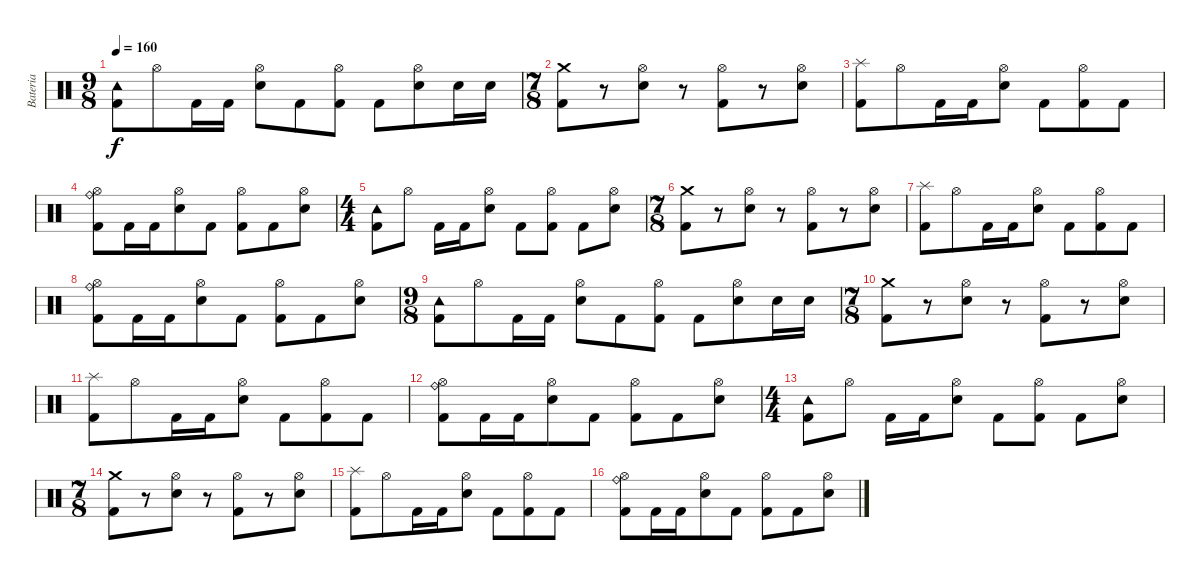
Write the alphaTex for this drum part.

\track ("Bateria" "Bateria") {instrument percussion}
\staff {score}
\articulation defaults
\ts (9 8)
\tempo 160
\clef neutral
\ks c
("Tambourine (hit)" "Kick (hit) 2").8{dy f} "Hi-Hat (open)".8 "Kick (hit) 2".16 "Kick (hit) 2".16 ("Hi-Hat (open)" "Electric Snare (hit)").8 "Kick (hit) 2".8 ("Hi-Hat (open)" "Kick (hit) 2").8 "Kick (hit) 2".8 ("Hi-Hat (open)" "Electric Snare (hit)").8 "Electric Snare (hit)".16 "Electric Snare (hit)".16 |
\ts (7 8)
("Crash medium (hit)" "Kick (hit) 2").8 r.8 ("Hi-Hat (open)" "Electric Snare (hit)").8 r.8 ("Hi-Hat (open)" "Kick (hit) 2").8 r.8 ("Hi-Hat (open)" "Electric Snare (hit)").8 |
("Splash (hit)" "Kick (hit) 2").8 "Hi-Hat (open)".8 "Kick (hit) 2".16 "Kick (hit) 2".16 ("Hi-Hat (open)" "Electric Snare (hit)").8 "Kick (hit) 2".8 ("Hi-Hat (open)" "Kick (hit) 2").8 "Kick (hit) 2".8 |
("Hi-Hat (open)" "Ride (bell)" "Kick (hit) 2").8 "Kick (hit) 2".16 "Kick (hit) 2".16 ("Hi-Hat (open)" "Electric Snare (hit)").8 "Kick (hit) 2".8 ("Hi-Hat (open)" "Kick (hit) 2").8 "Kick (hit) 2".8 ("Hi-Hat (open)" "Electric Snare (hit)").8 |
\ts (4 4)
("Tambourine (hit)" "Kick (hit) 2").8 "Hi-Hat (open)".8 "Kick (hit) 2".16 "Kick (hit) 2".16 ("Hi-Hat (open)" "Electric Snare (hit)").8 "Kick (hit) 2".8 ("Hi-Hat (open)" "Kick (hit) 2").8 "Kick (hit) 2".8 ("Hi-Hat (open)" "Electric Snare (hit)").8 |
\ts (7 8)
("Crash medium (hit)" "Kick (hit) 2").8 r.8 ("Hi-Hat (open)" "Electric Snare (hit)").8 r.8 ("Hi-Hat (open)" "Kick (hit) 2").8 r.8 ("Hi-Hat (open)" "Electric Snare (hit)").8 |
("Splash (hit)" "Kick (hit) 2").8 "Hi-Hat (open)".8 "Kick (hit) 2".16 "Kick (hit) 2".16 ("Hi-Hat (open)" "Electric Snare (hit)").8 "Kick (hit) 2".8 ("Hi-Hat (open)" "Kick (hit) 2").8 "Kick (hit) 2".8 |
("Hi-Hat (open)" "Ride (bell)" "Kick (hit) 2").8 "Kick (hit) 2".16 "Kick (hit) 2".16 ("Hi-Hat (open)" "Electric Snare (hit)").8 "Kick (hit) 2".8 ("Hi-Hat (open)" "Kick (hit) 2").8 "Kick (hit) 2".8 ("Hi-Hat (open)" "Electric Snare (hit)").8 |
\ts (9 8)
("Tambourine (hit)" "Kick (hit) 2").8 "Hi-Hat (open)".8 "Kick (hit) 2".16 "Kick (hit) 2".16 ("Hi-Hat (open)" "Electric Snare (hit)").8 "Kick (hit) 2".8 ("Hi-Hat (open)" "Kick (hit) 2").8 "Kick (hit) 2".8 ("Hi-Hat (open)" "Electric Snare (hit)").8 "Electric Snare (hit)".16 "Electric Snare (hit)".16 |
\ts (7 8)
("Crash medium (hit)" "Kick (hit) 2").8 r.8 ("Hi-Hat (open)" "Electric Snare (hit)").8 r.8 ("Hi-Hat (open)" "Kick (hit) 2").8 r.8 ("Hi-Hat (open)" "Electric Snare (hit)").8 |
("Splash (hit)" "Kick (hit) 2").8 "Hi-Hat (open)".8 "Kick (hit) 2".16 "Kick (hit) 2".16 ("Hi-Hat (open)" "Electric Snare (hit)").8 "Kick (hit) 2".8 ("Hi-Hat (open)" "Kick (hit) 2").8 "Kick (hit) 2".8 |
("Hi-Hat (open)" "Ride (bell)" "Kick (hit) 2").8 "Kick (hit) 2".16 "Kick (hit) 2".16 ("Hi-Hat (open)" "Electric Snare (hit)").8 "Kick (hit) 2".8 ("Hi-Hat (open)" "Kick (hit) 2").8 "Kick (hit) 2".8 ("Hi-Hat (open)" "Electric Snare (hit)").8 |
\ts (4 4)
("Tambourine (hit)" "Kick (hit) 2").8 "Hi-Hat (open)".8 "Kick (hit) 2".16 "Kick (hit) 2".16 ("Hi-Hat (open)" "Electric Snare (hit)").8 "Kick (hit) 2".8 ("Hi-Hat (open)" "Kick (hit) 2").8 "Kick (hit) 2".8 ("Hi-Hat (open)" "Electric Snare (hit)").8 |
\ts (7 8)
("Crash medium (hit)" "Kick (hit) 2").8 r.8 ("Hi-Hat (open)" "Electric Snare (hit)").8 r.8 ("Hi-Hat (open)" "Kick (hit) 2").8 r.8 ("Hi-Hat (open)" "Electric Snare (hit)").8 |
("Splash (hit)" "Kick (hit) 2").8 "Hi-Hat (open)".8 "Kick (hit) 2".16 "Kick (hit) 2".16 ("Hi-Hat (open)" "Electric Snare (hit)").8 "Kick (hit) 2".8 ("Hi-Hat (open)" "Kick (hit) 2").8 "Kick (hit) 2".8 |
("Hi-Hat (open)" "Ride (bell)" "Kick (hit) 2").8 "Kick (hit) 2".16 "Kick (hit) 2".16 ("Hi-Hat (open)" "Electric Snare (hit)").8 "Kick (hit) 2".8 ("Hi-Hat (open)" "Kick (hit) 2").8 "Kick (hit) 2".8 ("Hi-Hat (open)" "Electric Snare (hit)").8
